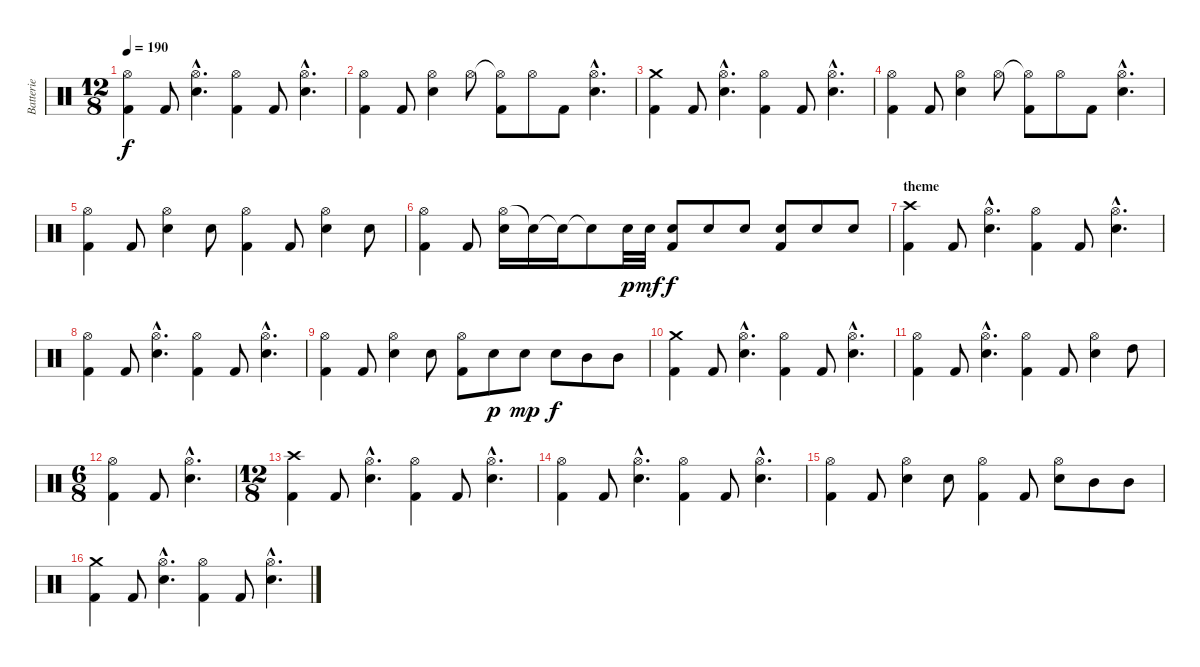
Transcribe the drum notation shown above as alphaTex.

\track ("Batterie" "Batterie") {instrument percussion}
\staff {score}
\articulation defaults
\ts (12 8)
\tempo 190
\clef neutral
\ks c
("Hi-Hat (open)" "Kick (hit) 2").4{dy f} "Kick (hit) 2".8 ("Hi-Hat (open)"{hac} "Snare (hit) 2"{hac}).4{d} ("Hi-Hat (open)" "Kick (hit) 2").4 "Kick (hit) 2".8 ("Hi-Hat (open)"{hac} "Snare (hit) 2"{hac}).4{d} |
("Hi-Hat (open)" "Kick (hit) 2").4 "Kick (hit) 2".8 ("Hi-Hat (open)" "Snare (hit) 2").4 "Hi-Hat (open)".8 ("Hi-Hat (open)"{t} "Kick (hit) 2").8 "Hi-Hat (open)".8 "Kick (hit) 2".8 ("Hi-Hat (open)"{hac} "Snare (hit) 2"{hac}).4{d} |
("Crash medium (hit)" "Kick (hit) 2").4 "Kick (hit) 2".8 ("Hi-Hat (open)"{hac} "Snare (hit) 2"{hac}).4{d} ("Hi-Hat (open)" "Kick (hit) 2").4 "Kick (hit) 2".8 ("Hi-Hat (open)"{hac} "Snare (hit) 2"{hac}).4{d} |
("Hi-Hat (open)" "Kick (hit) 2").4 "Kick (hit) 2".8 ("Hi-Hat (open)" "Snare (hit) 2").4 "Hi-Hat (open)".8 ("Hi-Hat (open)"{t} "Kick (hit) 2").8 "Hi-Hat (open)".8 "Kick (hit) 2".8 ("Hi-Hat (open)"{hac} "Snare (hit) 2"{hac}).4{d} |
("Hi-Hat (open)" "Kick (hit) 2").4 "Kick (hit) 2".8 ("Hi-Hat (open)" "Snare (hit) 2").4 "Snare (hit) 2".8 ("Hi-Hat (open)" "Kick (hit) 2").4 "Kick (hit) 2".8 ("Hi-Hat (open)" "Snare (hit) 2").4 "Snare (hit) 2".8 |
("Hi-Hat (open)" "Kick (hit) 2").4 "Kick (hit) 2".8 ("Hi-Hat (open)" "Snare (hit) 2").16 "Snare (hit)"{t}.16 "Snare (hit)"{t}.16 "Snare (hit)"{t}.8 "Snare (hit) 2".32{dy p} "Snare (hit) 2".32{dy mf} ("Snare (hit) 2" "Kick (hit) 2").8{dy f} "Snare (hit) 2".8 "Snare (hit) 2".8 ("Snare (hit) 2" "Kick (hit) 2").8 "Snare (hit) 2".8 "Snare (hit) 2".8 |
\section ("" "theme")
("Crash high (hit)" "Kick (hit) 2").4 "Kick (hit) 2".8 ("Hi-Hat (open)"{hac} "Snare (hit) 2"{hac}).4{d} ("Hi-Hat (open)" "Kick (hit) 2").4 "Kick (hit) 2".8 ("Hi-Hat (open)"{hac} "Snare (hit) 2"{hac}).4{d} |
("Hi-Hat (open)" "Kick (hit) 2").4 "Kick (hit) 2".8 ("Hi-Hat (open)"{hac} "Snare (hit) 2"{hac}).4{d} ("Hi-Hat (open)" "Kick (hit) 2").4 "Kick (hit) 2".8 ("Hi-Hat (open)"{hac} "Snare (hit) 2"{hac}).4{d} |
("Hi-Hat (open)" "Kick (hit) 2").4 "Kick (hit) 2".8 ("Hi-Hat (open)" "Snare (hit) 2").4 "Snare (hit) 2".8 ("Hi-Hat (open)" "Kick (hit) 2").8 "Snare (hit) 2".8{dy p} "Snare (hit) 2".8{dy mp} "Snare (hit) 2".8{dy f} "Mid Tom (hit)".8 "Mid Tom (hit)".8 |
("Crash medium (hit)" "Kick (hit) 2").4 "Kick (hit) 2".8 ("Hi-Hat (open)"{hac} "Snare (hit) 2"{hac}).4{d} ("Hi-Hat (open)" "Kick (hit) 2").4 "Kick (hit) 2".8 ("Hi-Hat (open)"{hac} "Snare (hit) 2"{hac}).4{d} |
("Hi-Hat (open)" "Kick (hit) 2").4 "Kick (hit) 2".8 ("Hi-Hat (open)"{hac} "Snare (hit) 2"{hac}).4{d} ("Hi-Hat (open)" "Kick (hit) 2").4 "Kick (hit) 2".8 ("Hi-Hat (open)" "Snare (hit) 2").4 "High Tom (hit)".8 |
\ts (6 8)
("Hi-Hat (open)" "Kick (hit) 2").4 "Kick (hit) 2".8 ("Hi-Hat (open)"{hac} "Snare (hit) 2"{hac}).4{d} |
\ts (12 8)
("Crash high (hit)" "Kick (hit) 2").4 "Kick (hit) 2".8 ("Hi-Hat (open)"{hac} "Snare (hit) 2"{hac}).4{d} ("Hi-Hat (open)" "Kick (hit) 2").4 "Kick (hit) 2".8 ("Hi-Hat (open)"{hac} "Snare (hit) 2"{hac}).4{d} |
("Hi-Hat (open)" "Kick (hit) 2").4 "Kick (hit) 2".8 ("Hi-Hat (open)"{hac} "Snare (hit) 2"{hac}).4{d} ("Hi-Hat (open)" "Kick (hit) 2").4 "Kick (hit) 2".8 ("Hi-Hat (open)"{hac} "Snare (hit) 2"{hac}).4{d} |
("Hi-Hat (open)" "Kick (hit) 2").4 "Kick (hit) 2".8 ("Hi-Hat (open)" "Snare (hit) 2").4 "Snare (hit) 2".8 ("Hi-Hat (open)" "Kick (hit) 2").4 "Kick (hit) 2".8 ("Hi-Hat (open)" "Snare (hit) 2").8 "Mid Tom (hit)".8 "Mid Tom (hit)".8 |
("Crash medium (hit)" "Kick (hit) 2").4 "Kick (hit) 2".8 ("Hi-Hat (open)"{hac} "Snare (hit) 2"{hac}).4{d} ("Hi-Hat (open)" "Kick (hit) 2").4 "Kick (hit) 2".8 ("Hi-Hat (open)"{hac} "Snare (hit) 2"{hac}).4{d}
